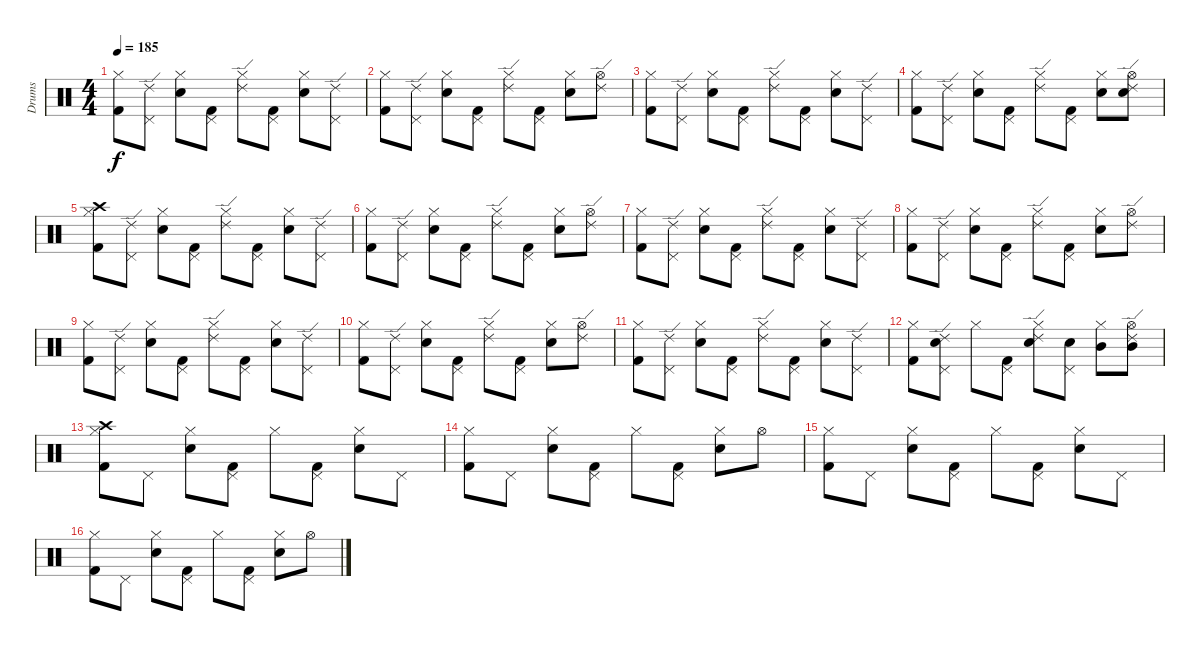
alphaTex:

\track ("Drums" "Drums") {instrument percussion}
\staff {score}
\articulation defaults
\ts (4 4)
\tempo 185
\clef neutral
\ks c
("Kick (hit) 2" "Hi-Hat (closed)").8{dy f} ("Ride (edge) 2" "Pedal Hi-Hat (hit)").8 ("Electric Snare (hit)" "Hi-Hat (closed)").8 ("Kick (hit) 2" "Pedal Hi-Hat (hit)").8 ("Ride (edge) 2" "Hi-Hat (closed)").8 ("Kick (hit) 2" "Pedal Hi-Hat (hit)").8 ("Electric Snare (hit)" "Hi-Hat (closed)").8 ("Ride (edge) 2" "Pedal Hi-Hat (hit)").8 |
("Kick (hit) 2" "Hi-Hat (closed)").8 ("Ride (edge) 2" "Pedal Hi-Hat (hit)").8 ("Electric Snare (hit)" "Hi-Hat (closed)").8 ("Kick (hit) 2" "Pedal Hi-Hat (hit)").8 ("Ride (edge) 2" "Hi-Hat (closed)").8 ("Kick (hit) 2" "Pedal Hi-Hat (hit)").8 ("Electric Snare (hit)" "Hi-Hat (closed)").8 ("Ride (edge) 2" "Hi-Hat (open)").8 |
("Kick (hit) 2" "Hi-Hat (closed)").8 ("Ride (edge) 2" "Pedal Hi-Hat (hit)").8 ("Electric Snare (hit)" "Hi-Hat (closed)").8 ("Kick (hit) 2" "Pedal Hi-Hat (hit)").8 ("Ride (edge) 2" "Hi-Hat (closed)").8 ("Kick (hit) 2" "Pedal Hi-Hat (hit)").8 ("Electric Snare (hit)" "Hi-Hat (closed)").8 ("Ride (edge) 2" "Pedal Hi-Hat (hit)").8 |
("Kick (hit) 2" "Hi-Hat (closed)").8 ("Ride (edge) 2" "Pedal Hi-Hat (hit)").8 ("Electric Snare (hit)" "Hi-Hat (closed)").8 ("Kick (hit) 2" "Pedal Hi-Hat (hit)").8 ("Ride (edge) 2" "Hi-Hat (closed)").8 ("Kick (hit) 2" "Pedal Hi-Hat (hit)").8 ("Electric Snare (hit)" "Hi-Hat (closed)").8 ("Electric Snare (hit)" "Ride (edge) 2" "Hi-Hat (open)").8 |
("Kick (hit) 2" "Crash high (hit)" "Hi-Hat (closed)").8 ("Ride (edge) 2" "Pedal Hi-Hat (hit)").8 ("Electric Snare (hit)" "Hi-Hat (closed)").8 ("Kick (hit) 2" "Pedal Hi-Hat (hit)").8 ("Ride (edge) 2" "Hi-Hat (closed)").8 ("Kick (hit) 2" "Pedal Hi-Hat (hit)").8 ("Electric Snare (hit)" "Hi-Hat (closed)").8 ("Ride (edge) 2" "Pedal Hi-Hat (hit)").8 |
("Kick (hit) 2" "Hi-Hat (closed)").8 ("Ride (edge) 2" "Pedal Hi-Hat (hit)").8 ("Electric Snare (hit)" "Hi-Hat (closed)").8 ("Kick (hit) 2" "Pedal Hi-Hat (hit)").8 ("Ride (edge) 2" "Hi-Hat (closed)").8 ("Kick (hit) 2" "Pedal Hi-Hat (hit)").8 ("Electric Snare (hit)" "Hi-Hat (closed)").8 ("Ride (edge) 2" "Hi-Hat (open)").8 |
("Kick (hit) 2" "Hi-Hat (closed)").8 ("Ride (edge) 2" "Pedal Hi-Hat (hit)").8 ("Electric Snare (hit)" "Hi-Hat (closed)").8 ("Kick (hit) 2" "Pedal Hi-Hat (hit)").8 ("Ride (edge) 2" "Hi-Hat (closed)").8 ("Kick (hit) 2" "Pedal Hi-Hat (hit)").8 ("Electric Snare (hit)" "Hi-Hat (closed)").8 ("Ride (edge) 2" "Pedal Hi-Hat (hit)").8 |
("Kick (hit) 2" "Hi-Hat (closed)").8 ("Ride (edge) 2" "Pedal Hi-Hat (hit)").8 ("Electric Snare (hit)" "Hi-Hat (closed)").8 ("Kick (hit) 2" "Pedal Hi-Hat (hit)").8 ("Ride (edge) 2" "Hi-Hat (closed)").8 ("Kick (hit) 2" "Pedal Hi-Hat (hit)").8 ("Electric Snare (hit)" "Hi-Hat (closed)").8 ("Ride (edge) 2" "Hi-Hat (open)").8 |
("Kick (hit) 2" "Hi-Hat (closed)").8 ("Ride (edge) 2" "Pedal Hi-Hat (hit)").8 ("Electric Snare (hit)" "Hi-Hat (closed)").8 ("Kick (hit) 2" "Pedal Hi-Hat (hit)").8 ("Ride (edge) 2" "Hi-Hat (closed)").8 ("Kick (hit) 2" "Pedal Hi-Hat (hit)").8 ("Electric Snare (hit)" "Hi-Hat (closed)").8 ("Ride (edge) 2" "Pedal Hi-Hat (hit)").8 |
("Kick (hit) 2" "Hi-Hat (closed)").8 ("Ride (edge) 2" "Pedal Hi-Hat (hit)").8 ("Electric Snare (hit)" "Hi-Hat (closed)").8 ("Kick (hit) 2" "Pedal Hi-Hat (hit)").8 ("Ride (edge) 2" "Hi-Hat (closed)").8 ("Kick (hit) 2" "Pedal Hi-Hat (hit)").8 ("Electric Snare (hit)" "Hi-Hat (closed)").8 ("Ride (edge) 2" "Hi-Hat (open)").8 |
("Kick (hit) 2" "Hi-Hat (closed)").8 ("Ride (edge) 2" "Pedal Hi-Hat (hit)").8 ("Electric Snare (hit)" "Hi-Hat (closed)").8 ("Kick (hit) 2" "Pedal Hi-Hat (hit)").8 ("Ride (edge) 2" "Hi-Hat (closed)").8 ("Kick (hit) 2" "Pedal Hi-Hat (hit)").8 ("Electric Snare (hit)" "Hi-Hat (closed)").8 ("Ride (edge) 2" "Pedal Hi-Hat (hit)").8 |
("Kick (hit) 2" "Hi-Hat (closed)").8 ("Electric Snare (hit)" "Ride (edge) 2" "Pedal Hi-Hat (hit)").8 "Hi-Hat (closed)".8 ("Kick (hit) 2" "Pedal Hi-Hat (hit)").8 ("Electric Snare (hit)" "Ride (edge) 2" "Hi-Hat (closed)").8 ("Electric Snare (hit)" "Pedal Hi-Hat (hit)").8 ("Mid Tom (hit)" "Hi-Hat (closed)").8 ("Mid Tom (hit)" "Ride (edge) 2" "Hi-Hat (open)").8 |
("Kick (hit) 2" "Crash high (hit)" "Hi-Hat (closed)").8 "Pedal Hi-Hat (hit)".8 ("Electric Snare (hit)" "Hi-Hat (closed)").8 ("Kick (hit) 2" "Pedal Hi-Hat (hit)").8 "Hi-Hat (closed)".8 ("Kick (hit) 2" "Pedal Hi-Hat (hit)").8 ("Electric Snare (hit)" "Hi-Hat (closed)").8 "Pedal Hi-Hat (hit)".8 |
("Kick (hit) 2" "Hi-Hat (closed)").8 "Pedal Hi-Hat (hit)".8 ("Electric Snare (hit)" "Hi-Hat (closed)").8 ("Kick (hit) 2" "Pedal Hi-Hat (hit)").8 "Hi-Hat (closed)".8 ("Kick (hit) 2" "Pedal Hi-Hat (hit)").8 ("Electric Snare (hit)" "Hi-Hat (closed)").8 "Hi-Hat (open)".8 |
("Kick (hit) 2" "Hi-Hat (closed)").8 "Pedal Hi-Hat (hit)".8 ("Electric Snare (hit)" "Hi-Hat (closed)").8 ("Kick (hit) 2" "Pedal Hi-Hat (hit)").8 "Hi-Hat (closed)".8 ("Kick (hit) 2" "Pedal Hi-Hat (hit)").8 ("Electric Snare (hit)" "Hi-Hat (closed)").8 "Pedal Hi-Hat (hit)".8 |
("Kick (hit) 2" "Hi-Hat (closed)").8 "Pedal Hi-Hat (hit)".8 ("Electric Snare (hit)" "Hi-Hat (closed)").8 ("Kick (hit) 2" "Pedal Hi-Hat (hit)").8 "Hi-Hat (closed)".8 ("Kick (hit) 2" "Pedal Hi-Hat (hit)").8 ("Electric Snare (hit)" "Hi-Hat (closed)").8 "Hi-Hat (open)".8
